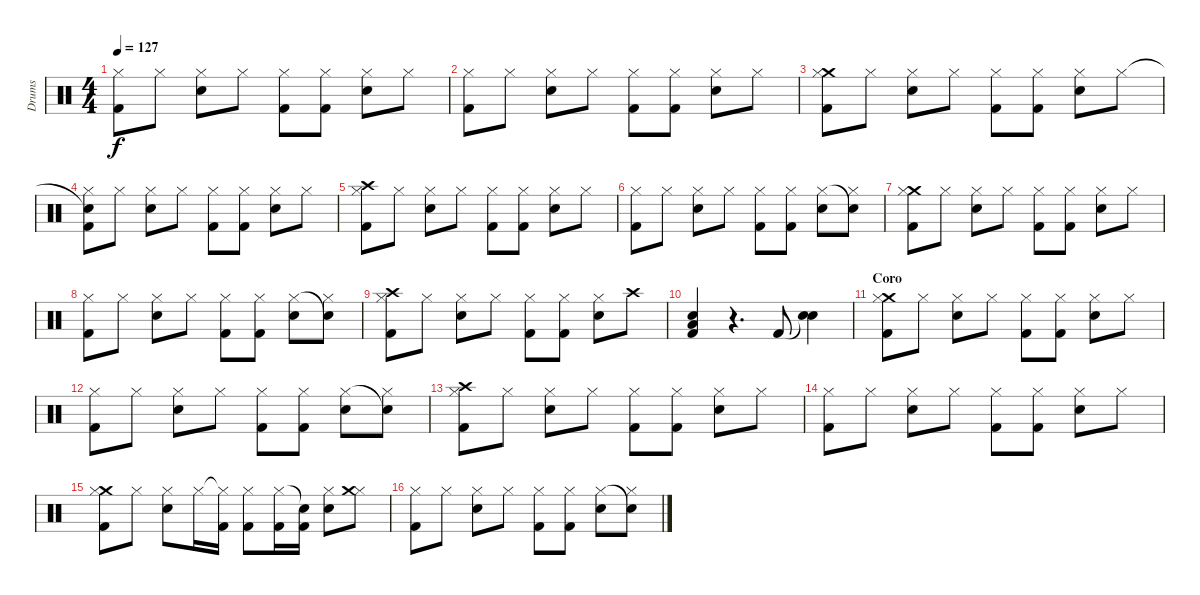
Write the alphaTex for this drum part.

\track ("Drums" "Drums") {instrument percussion}
\staff {score}
\articulation defaults
\ts (4 4)
\tempo 127
\clef neutral
\ks c
("Hi-Hat (closed)" "Kick (hit) 2").8{dy f} "Hi-Hat (closed)".8 ("Hi-Hat (closed)" "Electric Snare (hit)").8 "Hi-Hat (closed)".8 ("Hi-Hat (closed)" "Kick (hit) 2").8 ("Hi-Hat (closed)" "Kick (hit) 2").8 ("Hi-Hat (closed)" "Electric Snare (hit)").8 "Hi-Hat (closed)".8 |
("Hi-Hat (closed)" "Kick (hit) 2").8 "Hi-Hat (closed)".8 ("Hi-Hat (closed)" "Electric Snare (hit)").8 "Hi-Hat (closed)".8 ("Hi-Hat (closed)" "Kick (hit) 2").8 ("Hi-Hat (closed)" "Kick (hit) 2").8 ("Hi-Hat (closed)" "Electric Snare (hit)").8 "Hi-Hat (closed)".8 |
("Crash medium (hit)" "Hi-Hat (closed)" "Kick (hit) 2").8 "Hi-Hat (closed)".8 ("Hi-Hat (closed)" "Electric Snare (hit)").8 "Hi-Hat (closed)".8 ("Hi-Hat (closed)" "Kick (hit) 2").8 ("Hi-Hat (closed)" "Kick (hit) 2").8 ("Hi-Hat (closed)" "Electric Snare (hit)").8 "Hi-Hat (closed)".8 |
("Snare (hit)"{t} "Hi-Hat (closed)" "Kick (hit) 2").8 "Hi-Hat (closed)".8 ("Hi-Hat (closed)" "Electric Snare (hit)").8 "Hi-Hat (closed)".8 ("Hi-Hat (closed)" "Kick (hit) 2").8 ("Hi-Hat (closed)" "Kick (hit) 2").8 ("Hi-Hat (closed)" "Electric Snare (hit)").8 "Hi-Hat (closed)".8 |
("Crash high (hit)" "Hi-Hat (closed)" "Kick (hit) 2").8 "Hi-Hat (closed)".8 ("Hi-Hat (closed)" "Electric Snare (hit)").8 "Hi-Hat (closed)".8 ("Hi-Hat (closed)" "Kick (hit) 2").8 ("Hi-Hat (closed)" "Kick (hit) 2").8 ("Hi-Hat (closed)" "Electric Snare (hit)").8 "Hi-Hat (closed)".8 |
("Hi-Hat (closed)" "Kick (hit) 2").8 "Hi-Hat (closed)".8 ("Hi-Hat (closed)" "Electric Snare (hit)").8 "Hi-Hat (closed)".8 ("Hi-Hat (closed)" "Kick (hit) 2").8 ("Hi-Hat (closed)" "Kick (hit) 2").8 ("Hi-Hat (closed)" "Electric Snare (hit)").8 ("Snare (hit)"{t} "Hi-Hat (closed)").8 |
("Crash medium (hit)" "Hi-Hat (closed)" "Kick (hit) 2").8 "Hi-Hat (closed)".8 ("Hi-Hat (closed)" "Electric Snare (hit)").8 "Hi-Hat (closed)".8 ("Hi-Hat (closed)" "Kick (hit) 2").8 ("Hi-Hat (closed)" "Kick (hit) 2").8 ("Hi-Hat (closed)" "Electric Snare (hit)").8 "Hi-Hat (closed)".8 |
("Hi-Hat (closed)" "Kick (hit) 2").8 "Hi-Hat (closed)".8 ("Hi-Hat (closed)" "Electric Snare (hit)").8 "Hi-Hat (closed)".8 ("Hi-Hat (closed)" "Kick (hit) 2").8 ("Hi-Hat (closed)" "Kick (hit) 2").8 ("Hi-Hat (closed)" "Electric Snare (hit)").8 ("Snare (hit)"{t} "Hi-Hat (closed)").8 |
("Crash high (hit)" "Hi-Hat (closed)" "Kick (hit) 2").8 "Hi-Hat (closed)".8 ("Hi-Hat (closed)" "Electric Snare (hit)").8 "Hi-Hat (closed)".8 ("Hi-Hat (closed)" "Kick (hit) 2").8 ("Hi-Hat (closed)" "Kick (hit) 2").8 ("Hi-Hat (closed)" "Electric Snare (hit)").8 "Crash high (hit)".8 |
("Electric Snare (hit)" "Low Floor Tom (hit)" "Kick (hit) 2").4 r.4{d} "Kick (hit) 2".8 ("Snare (hit)"{t} "Electric Snare (hit)").4 |
\section ("" "Coro")
("Crash medium (hit)" "Hi-Hat (closed)" "Kick (hit) 2").8 "Hi-Hat (closed)".8 ("Hi-Hat (closed)" "Electric Snare (hit)").8 "Hi-Hat (closed)".8 ("Hi-Hat (closed)" "Kick (hit) 2").8 ("Hi-Hat (closed)" "Kick (hit) 2").8 ("Hi-Hat (closed)" "Electric Snare (hit)").8 "Hi-Hat (closed)".8 |
("Hi-Hat (closed)" "Kick (hit) 2").8 "Hi-Hat (closed)".8 ("Hi-Hat (closed)" "Electric Snare (hit)").8 "Hi-Hat (closed)".8 ("Hi-Hat (closed)" "Kick (hit) 2").8 ("Hi-Hat (closed)" "Kick (hit) 2").8 ("Hi-Hat (closed)" "Electric Snare (hit)").8 ("Snare (hit)"{t} "Hi-Hat (closed)").8 |
("Crash high (hit)" "Hi-Hat (closed)" "Kick (hit) 2").8 "Hi-Hat (closed)".8 ("Hi-Hat (closed)" "Electric Snare (hit)").8 "Hi-Hat (closed)".8 ("Hi-Hat (closed)" "Kick (hit) 2").8 ("Hi-Hat (closed)" "Kick (hit) 2").8 ("Hi-Hat (closed)" "Electric Snare (hit)").8 "Hi-Hat (closed)".8 |
("Hi-Hat (closed)" "Kick (hit) 2").8 "Hi-Hat (closed)".8 ("Hi-Hat (closed)" "Electric Snare (hit)").8 "Hi-Hat (closed)".8 ("Hi-Hat (closed)" "Kick (hit) 2").8 ("Hi-Hat (closed)" "Kick (hit) 2").8 ("Hi-Hat (closed)" "Electric Snare (hit)").8 "Hi-Hat (closed)".8 |
("Crash medium (hit)" "Hi-Hat (closed)" "Kick (hit) 2").8 "Hi-Hat (closed)".8 ("Hi-Hat (closed)" "Electric Snare (hit)").8 "Hi-Hat (closed)".16 ("Hi-Hat (closed)"{t} "Kick (hit) 2").16 ("Hi-Hat (closed)" "Kick (hit) 2").8 ("Hi-Hat (closed)" "Kick (hit) 2").16 ("Snare (hit)"{t} "Kick (hit) 2").16 ("Hi-Hat (closed)" "Electric Snare (hit)").8 ("Hi-Hat (closed)" "Crash medium (hit)").8 |
("Hi-Hat (closed)" "Kick (hit) 2").8 "Hi-Hat (closed)".8 ("Hi-Hat (closed)" "Electric Snare (hit)").8 "Hi-Hat (closed)".8 ("Hi-Hat (closed)" "Kick (hit) 2").8 ("Hi-Hat (closed)" "Kick (hit) 2").8 ("Hi-Hat (closed)" "Electric Snare (hit)").8 ("Snare (hit)"{t} "Hi-Hat (closed)").8
